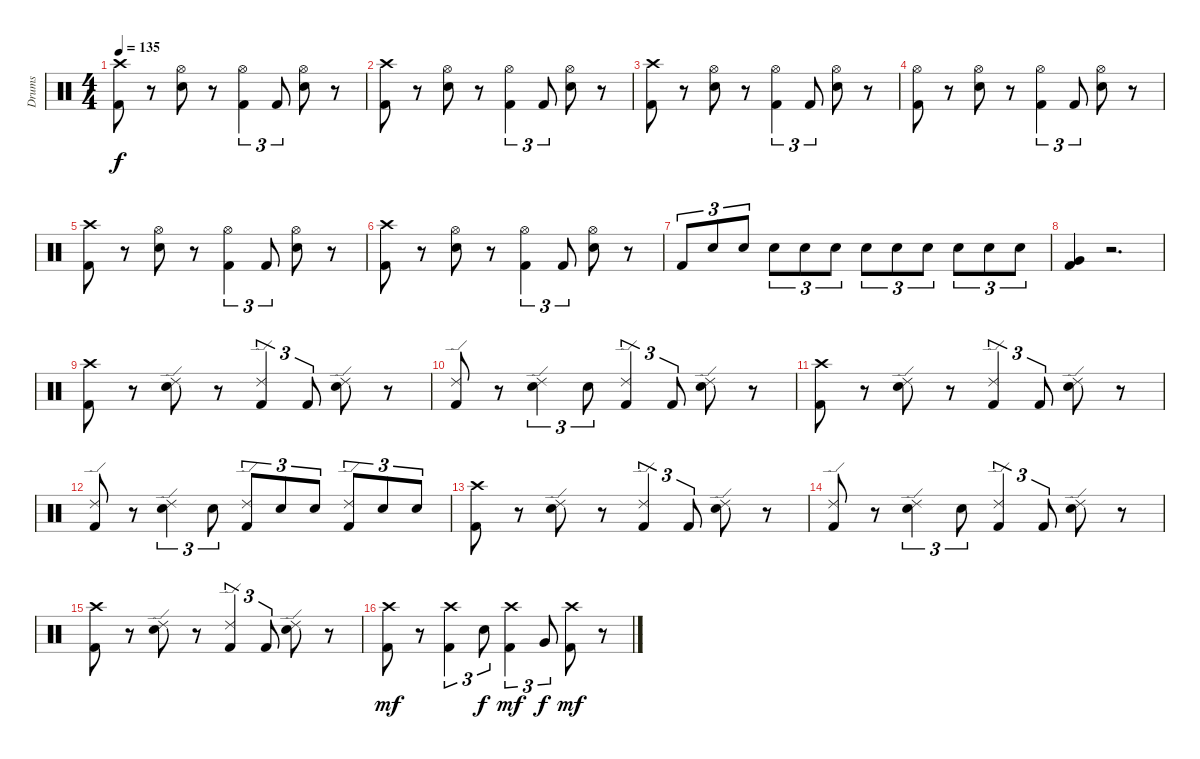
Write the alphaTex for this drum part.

\track ("Drums" "Drums") {instrument percussion}
\staff {score}
\articulation defaults
\ts (4 4)
\tempo 135
\clef neutral
\ks c
("Crash high (hit)" "Kick (hit) 2").8{dy f} r.8 ("Hi-Hat (open)" "Electric Snare (hit)").8 r.8 ("Hi-Hat (open)" "Kick (hit) 2").4{tu (3 2)} "Kick (hit) 2".8{tu (3 2)} ("Hi-Hat (open)" "Electric Snare (hit)").8 r.8 |
("Crash high (hit)" "Kick (hit) 2").8 r.8 ("Hi-Hat (open)" "Electric Snare (hit)").8 r.8 ("Hi-Hat (open)" "Kick (hit) 2").4{tu (3 2)} "Kick (hit) 2".8{tu (3 2)} ("Hi-Hat (open)" "Electric Snare (hit)").8 r.8 |
("Crash high (hit)" "Kick (hit) 2").8 r.8 ("Hi-Hat (open)" "Electric Snare (hit)").8 r.8 ("Hi-Hat (open)" "Kick (hit) 2").4{tu (3 2)} "Kick (hit) 2".8{tu (3 2)} ("Hi-Hat (open)" "Electric Snare (hit)").8 r.8 |
("Hi-Hat (open)" "Kick (hit) 2").8 r.8 ("Hi-Hat (open)" "Electric Snare (hit)").8 r.8 ("Hi-Hat (open)" "Kick (hit) 2").4{tu (3 2)} "Kick (hit) 2".8{tu (3 2)} ("Hi-Hat (open)" "Electric Snare (hit)").8 r.8 |
("Crash high (hit)" "Kick (hit) 2").8 r.8 ("Hi-Hat (open)" "Electric Snare (hit)").8 r.8 ("Hi-Hat (open)" "Kick (hit) 2").4{tu (3 2)} "Kick (hit) 2".8{tu (3 2)} ("Hi-Hat (open)" "Electric Snare (hit)").8 r.8 |
("Crash high (hit)" "Kick (hit) 2").8 r.8 ("Hi-Hat (open)" "Electric Snare (hit)").8 r.8 ("Hi-Hat (open)" "Kick (hit) 2").4{tu (3 2)} "Kick (hit) 2".8{tu (3 2)} ("Hi-Hat (open)" "Electric Snare (hit)").8 r.8 |
"Kick (hit) 2".8{tu (3 2)} "Electric Snare (hit)".8{tu (3 2)} "Electric Snare (hit)".8{tu (3 2)} "Electric Snare (hit)".8{tu (3 2)} "Electric Snare (hit)".8{tu (3 2)} "Electric Snare (hit)".8{tu (3 2)} "Electric Snare (hit)".8{tu (3 2)} "Electric Snare (hit)".8{tu (3 2)} "Electric Snare (hit)".8{tu (3 2)} "Electric Snare (hit)".8{tu (3 2)} "Electric Snare (hit)".8{tu (3 2)} "Electric Snare (hit)".8{tu (3 2)} |
("Very Low Tom (hit)" "Kick (hit) 2").4 r.2{d} |
("Crash high (hit)" "Kick (hit) 2").8 r.8 ("Ride (edge) 2" "Electric Snare (hit)").8 r.8 ("Ride (edge) 2" "Kick (hit) 2").4{tu (3 2)} "Kick (hit) 2".8{tu (3 2)} ("Ride (edge) 2" "Electric Snare (hit)").8 r.8 |
("Ride (edge) 2" "Kick (hit) 2").8 r.8 ("Ride (edge) 2" "Electric Snare (hit)").4{tu (3 2)} "Electric Snare (hit)".8{tu (3 2)} ("Ride (edge) 2" "Kick (hit) 2").4{tu (3 2)} "Kick (hit) 2".8{tu (3 2)} ("Ride (edge) 2" "Electric Snare (hit)").8 r.8 |
("Crash high (hit)" "Kick (hit) 2").8 r.8 ("Ride (edge) 2" "Electric Snare (hit)").8 r.8 ("Ride (edge) 2" "Kick (hit) 2").4{tu (3 2)} "Kick (hit) 2".8{tu (3 2)} ("Ride (edge) 2" "Electric Snare (hit)").8 r.8 |
("Ride (edge) 2" "Kick (hit) 2").8 r.8 ("Ride (edge) 2" "Electric Snare (hit)").4{tu (3 2)} "Electric Snare (hit)".8{tu (3 2)} ("Ride (edge) 2" "Kick (hit) 2").8{tu (3 2)} "Electric Snare (hit)".8{tu (3 2)} "Electric Snare (hit)".8{tu (3 2)} ("Ride (edge) 2" "Kick (hit) 2").8{tu (3 2)} "Electric Snare (hit)".8{tu (3 2)} "Electric Snare (hit)".8{tu (3 2)} |
("Crash high (hit)" "Kick (hit) 2").8 r.8 ("Ride (edge) 2" "Electric Snare (hit)").8 r.8 ("Ride (edge) 2" "Kick (hit) 2").4{tu (3 2)} "Kick (hit) 2".8{tu (3 2)} ("Ride (edge) 2" "Electric Snare (hit)").8 r.8 |
("Ride (edge) 2" "Kick (hit) 2").8 r.8 ("Ride (edge) 2" "Electric Snare (hit)").4{tu (3 2)} "Electric Snare (hit)".8{tu (3 2)} ("Ride (edge) 2" "Kick (hit) 2").4{tu (3 2)} "Kick (hit) 2".8{tu (3 2)} ("Ride (edge) 2" "Electric Snare (hit)").8 r.8 |
("Crash high (hit)" "Kick (hit) 2").8 r.8 ("Ride (edge) 2" "Electric Snare (hit)").8 r.8 ("Ride (edge) 2" "Kick (hit) 2").4{tu (3 2)} "Kick (hit) 2".8{tu (3 2)} ("Ride (edge) 2" "Electric Snare (hit)").8 r.8 |
("Crash high (hit)" "Kick (hit) 2").8{dy mf} r.8 ("Crash high (hit)" "Kick (hit) 2").4{tu (3 2)} "Electric Snare (hit)".8{tu (3 2) dy f} ("Crash high (hit)" "Kick (hit) 2").4{tu (3 2) dy mf} "Very Low Tom (hit)".8{tu (3 2) dy f} ("Crash high (hit)" "Kick (hit) 2").8{dy mf} r.8
